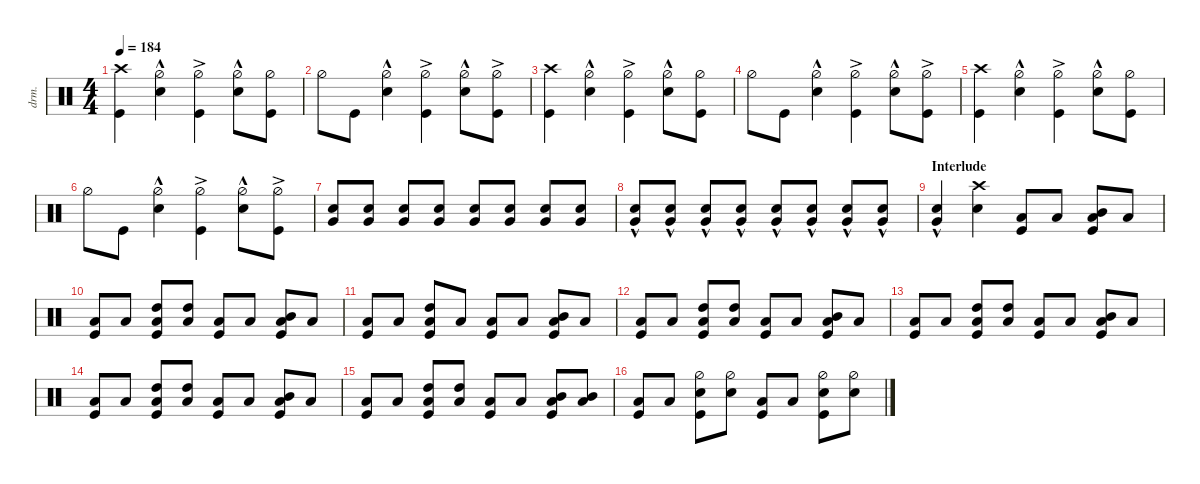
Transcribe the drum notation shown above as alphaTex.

\defaultSystemsLayout 4
\hideDynamics
\bracketExtendMode nobrackets
\otherSystemsTrackNameOrientation horizontal
\track ("Drums" "drm.") {defaultSystemsLayout 4 multiBarRest instrument percussion}
\staff {score}
\articulation defaults
\ts (4 4)
\beaming (8 2 2 2 2)
\tempo 184
\clef neutral
\ks c
("Crash high (hit)" "Kick (hit)").4{dy f} ("Hi-Hat (half)"{hac} "Snare (hit) 2").4 ("Hi-Hat (half)"{ac} "Kick (hit)").4 ("Hi-Hat (half)"{hac} "Snare (hit) 2").8 ("Kick (hit)" "Hi-Hat (half)").8 |
"Hi-Hat (half)".8 "Kick (hit)".8 ("Hi-Hat (half)"{hac} "Snare (hit) 2").4 ("Hi-Hat (half)"{ac} "Kick (hit)").4 ("Hi-Hat (half)"{hac} "Snare (hit) 2").8 ("Kick (hit)" "Hi-Hat (half)"{ac}).8 |
("Crash high (hit)" "Kick (hit)").4 ("Hi-Hat (half)"{hac} "Snare (hit) 2").4 ("Hi-Hat (half)"{ac} "Kick (hit)").4 ("Hi-Hat (half)"{hac} "Snare (hit) 2").8 ("Kick (hit)" "Hi-Hat (half)").8 |
"Hi-Hat (half)".8 "Kick (hit)".8 ("Hi-Hat (half)"{hac} "Snare (hit) 2").4 ("Hi-Hat (half)"{ac} "Kick (hit)").4 ("Hi-Hat (half)"{hac} "Snare (hit) 2").8 ("Kick (hit)" "Hi-Hat (half)"{ac}).8 |
("Crash high (hit)" "Kick (hit)").4 ("Hi-Hat (half)"{hac} "Snare (hit) 2").4 ("Hi-Hat (half)"{ac} "Kick (hit)").4 ("Hi-Hat (half)"{hac} "Snare (hit) 2").8 ("Kick (hit)" "Hi-Hat (half)").8 |
"Hi-Hat (half)".8 "Kick (hit)".8 ("Hi-Hat (half)"{hac} "Snare (hit) 2").4 ("Hi-Hat (half)"{ac} "Kick (hit)").4 ("Hi-Hat (half)"{hac} "Snare (hit) 2").8 ("Kick (hit)" "Hi-Hat (half)"{ac}).8 |
("Snare (hit) 2" "Very Low Tom (hit)").8 ("Snare (hit) 2" "Very Low Tom (hit)").8 ("Snare (hit) 2" "Very Low Tom (hit)").8 ("Snare (hit) 2" "Very Low Tom (hit)").8 ("Snare (hit) 2" "Very Low Tom (hit)").8 ("Snare (hit) 2" "Very Low Tom (hit)").8 ("Snare (hit) 2" "Very Low Tom (hit)").8 ("Snare (hit) 2" "Very Low Tom (hit)").8 |
("Snare (hit) 2" "Very Low Tom (hit)"{hac}).8 ("Snare (hit) 2" "Very Low Tom (hit)"{hac}).8 ("Snare (hit) 2" "Very Low Tom (hit)"{hac}).8 ("Snare (hit) 2" "Very Low Tom (hit)"{hac}).8 ("Snare (hit) 2" "Very Low Tom (hit)"{hac}).8 ("Snare (hit) 2" "Very Low Tom (hit)"{hac}).8 ("Snare (hit) 2" "Very Low Tom (hit)"{hac}).8 ("Snare (hit) 2" "Very Low Tom (hit)"{hac}).8 |
\section ("" "Interlude")
("Snare (hit) 2" "Very Low Tom (hit)"{hac}).4 ("Snare (hit) 2" "Crash high (hit)").4 ("Kick (hit)" "Low Tom (hit)").8{dy ff} "Low Tom (hit)".8 ("Low Tom (hit)" "Kick (hit)" "Mid Tom (hit)").8 "Low Tom (hit)".8 |
("Kick (hit)" "Low Tom (hit)").8 "Low Tom (hit)".8 ("Low Tom (hit)" "Kick (hit)" "High Tom (hit)").8 ("Low Tom (hit)" "High Tom (hit)").8 ("Low Tom (hit)" "Kick (hit)").8 "Low Tom (hit)".8 ("Low Tom (hit)" "Kick (hit)" "Mid Tom (hit)").8 "Low Tom (hit)".8 |
("Kick (hit)" "Low Tom (hit)").8 "Low Tom (hit)".8 ("Low Tom (hit)" "Kick (hit)" "High Tom (hit)").8 "Low Tom (hit)".8 ("Low Tom (hit)" "Kick (hit)").8 "Low Tom (hit)".8 ("Low Tom (hit)" "Kick (hit)" "Mid Tom (hit)").8 "Low Tom (hit)".8 |
("Kick (hit)" "Low Tom (hit)").8 "Low Tom (hit)".8 ("Low Tom (hit)" "Kick (hit)" "High Tom (hit)").8 ("Low Tom (hit)" "High Tom (hit)").8 ("Low Tom (hit)" "Kick (hit)").8 "Low Tom (hit)".8 ("Low Tom (hit)" "Kick (hit)" "Mid Tom (hit)").8 "Low Tom (hit)".8 |
("Kick (hit)" "Low Tom (hit)").8 "Low Tom (hit)".8 ("Low Tom (hit)" "Kick (hit)" "High Tom (hit)").8 ("Low Tom (hit)" "High Tom (hit)").8 ("Low Tom (hit)" "Kick (hit)").8 "Low Tom (hit)".8 ("Low Tom (hit)" "Kick (hit)" "Mid Tom (hit)").8 "Low Tom (hit)".8 |
("Kick (hit)" "Low Tom (hit)").8 "Low Tom (hit)".8 ("Low Tom (hit)" "Kick (hit)" "High Tom (hit)").8 ("Low Tom (hit)" "High Tom (hit)").8 ("Low Tom (hit)" "Kick (hit)").8 "Low Tom (hit)".8 ("Low Tom (hit)" "Kick (hit)" "Mid Tom (hit)").8 "Low Tom (hit)".8 |
("Kick (hit)" "Low Tom (hit)").8 "Low Tom (hit)".8 ("Low Tom (hit)" "Kick (hit)" "High Tom (hit)").8 ("Low Tom (hit)" "High Tom (hit)").8 ("Low Tom (hit)" "Kick (hit)").8 "Low Tom (hit)".8 ("Low Tom (hit)" "Kick (hit)" "Mid Tom (hit)").8 ("Low Tom (hit)" "Mid Tom (hit)").8 |
("Kick (hit)" "Low Tom (hit)").8 "Low Tom (hit)".8 ("Snare (hit) 2" "Kick (hit)" "Hi-Hat (half)").8{dy f} ("Snare (hit) 2" "Hi-Hat (half)").8 ("Low Tom (hit)" "Kick (hit)").8{dy ff} "Low Tom (hit)".8 ("Snare (hit) 2" "Kick (hit)" "Hi-Hat (half)").8{dy f} ("Snare (hit) 2" "Hi-Hat (half)").8
